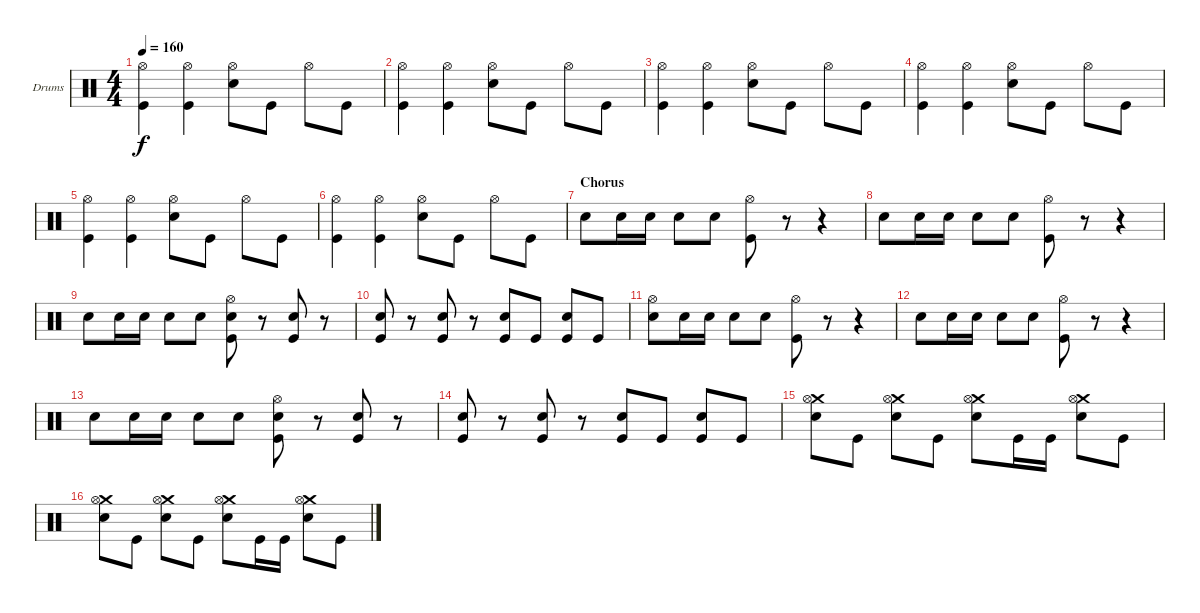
\bracketExtendMode groupsimilarinstruments
\firstSystemTrackNameOrientation horizontal
\otherSystemsTrackNameOrientation horizontal
\track ("Lars Ulrich (Drum)" "Drums") {instrument percussion}
\staff {score}
\articulation defaults
\ts (4 4)
\tempo 160
\clef neutral
\ks c
("Hi-Hat (open)" "Kick (hit)").4{dy f} ("Hi-Hat (open)" "Kick (hit)").4 ("Hi-Hat (open)" "Snare (hit) 2").8 "Kick (hit)".8 "Hi-Hat (open)".8 "Kick (hit)".8 |
("Hi-Hat (open)" "Kick (hit)").4 ("Hi-Hat (open)" "Kick (hit)").4 ("Hi-Hat (open)" "Snare (hit) 2").8 "Kick (hit)".8 "Hi-Hat (open)".8 "Kick (hit)".8 |
("Hi-Hat (open)" "Kick (hit)").4 ("Hi-Hat (open)" "Kick (hit)").4 ("Hi-Hat (open)" "Snare (hit) 2").8 "Kick (hit)".8 "Hi-Hat (open)".8 "Kick (hit)".8 |
("Hi-Hat (open)" "Kick (hit)").4 ("Hi-Hat (open)" "Kick (hit)").4 ("Hi-Hat (open)" "Snare (hit) 2").8 "Kick (hit)".8 "Hi-Hat (open)".8 "Kick (hit)".8 |
("Hi-Hat (open)" "Kick (hit)").4 ("Hi-Hat (open)" "Kick (hit)").4 ("Hi-Hat (open)" "Snare (hit) 2").8 "Kick (hit)".8 "Hi-Hat (open)".8 "Kick (hit)".8 |
("Hi-Hat (open)" "Kick (hit)").4 ("Hi-Hat (open)" "Kick (hit)").4 ("Hi-Hat (open)" "Snare (hit) 2").8 "Kick (hit)".8 "Hi-Hat (open)".8 "Kick (hit)".8 |
\section ("" "Chorus")
"Snare (hit) 2".8 "Snare (hit) 2".16 "Snare (hit) 2".16 "Snare (hit) 2".8 "Snare (hit) 2".8 ("Hi-Hat (open)" "Kick (hit)").8 r.8 r.4 |
"Snare (hit) 2".8 "Snare (hit) 2".16 "Snare (hit) 2".16 "Snare (hit) 2".8 "Snare (hit) 2".8 ("Hi-Hat (open)" "Kick (hit)").8 r.8 r.4 |
"Snare (hit) 2".8 "Snare (hit) 2".16 "Snare (hit) 2".16 "Snare (hit) 2".8 "Snare (hit) 2".8 ("Hi-Hat (open)" "Snare (hit) 2" "Kick (hit)").8 r.8 ("Snare (hit) 2" "Kick (hit)").8 r.8 |
("Snare (hit) 2" "Kick (hit)").8 r.8 ("Snare (hit) 2" "Kick (hit)").8 r.8 ("Snare (hit) 2" "Kick (hit)").8 "Kick (hit)".8 ("Snare (hit) 2" "Kick (hit)").8 "Kick (hit)".8 |
("Hi-Hat (open)" "Snare (hit) 2").8 "Snare (hit) 2".16 "Snare (hit) 2".16 "Snare (hit) 2".8 "Snare (hit) 2".8 ("Hi-Hat (open)" "Kick (hit)").8 r.8 r.4 |
"Snare (hit) 2".8 "Snare (hit) 2".16 "Snare (hit) 2".16 "Snare (hit) 2".8 "Snare (hit) 2".8 ("Hi-Hat (open)" "Kick (hit)").8 r.8 r.4 |
"Snare (hit) 2".8 "Snare (hit) 2".16 "Snare (hit) 2".16 "Snare (hit) 2".8 "Snare (hit) 2".8 ("Hi-Hat (open)" "Snare (hit) 2" "Kick (hit)").8 r.8 ("Snare (hit) 2" "Kick (hit)").8 r.8 |
("Snare (hit) 2" "Kick (hit)").8 r.8 ("Snare (hit) 2" "Kick (hit)").8 r.8 ("Snare (hit) 2" "Kick (hit)").8 "Kick (hit)".8 ("Snare (hit) 2" "Kick (hit)").8 "Kick (hit)".8 |
("Crash medium (hit)" "Hi-Hat (open)" "Snare (hit) 2").8 "Kick (hit)".8 ("Crash medium (hit)" "Hi-Hat (open)" "Snare (hit) 2").8 "Kick (hit)".8 ("Crash medium (hit)" "Hi-Hat (open)" "Snare (hit) 2").8 "Kick (hit)".16 "Kick (hit)".16 ("Crash medium (hit)" "Hi-Hat (open)" "Snare (hit) 2").8 "Kick (hit)".8 |
("Crash medium (hit)" "Hi-Hat (open)" "Snare (hit) 2").8 "Kick (hit)".8 ("Crash medium (hit)" "Hi-Hat (open)" "Snare (hit) 2").8 "Kick (hit)".8 ("Crash medium (hit)" "Hi-Hat (open)" "Snare (hit) 2").8 "Kick (hit)".16 "Kick (hit)".16 ("Crash medium (hit)" "Hi-Hat (open)" "Snare (hit) 2").8 "Kick (hit)".8
